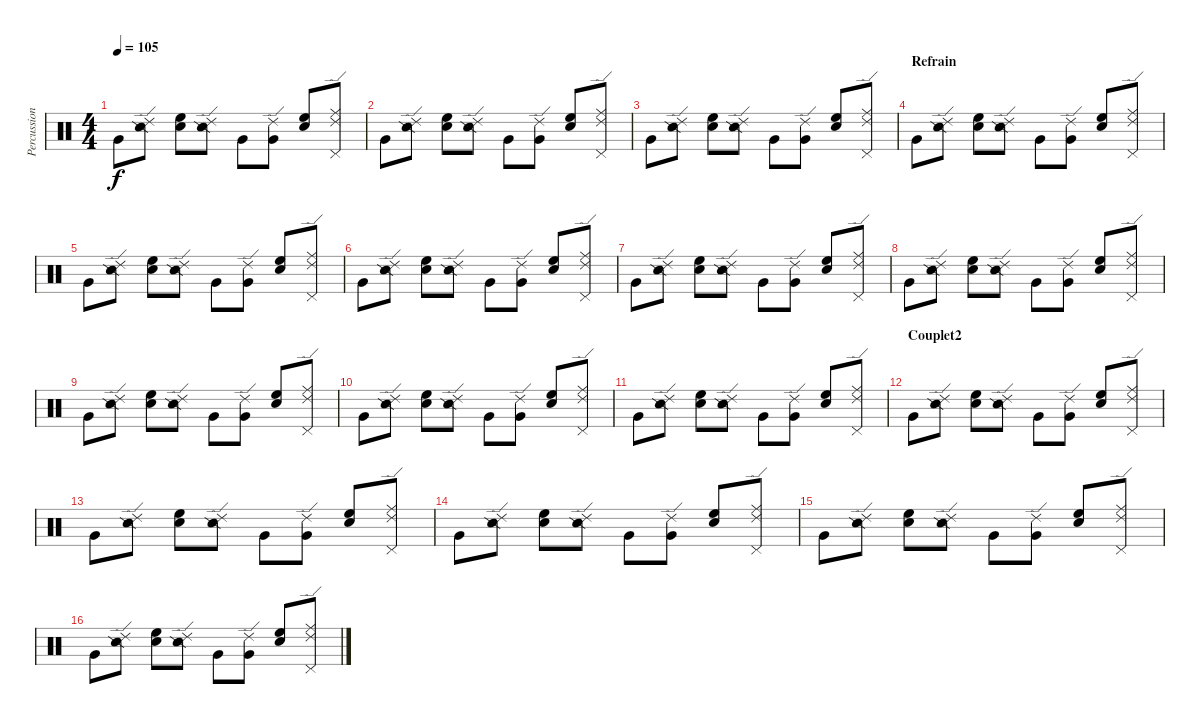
\track ("Percussions" "Percussion") {instrument percussion}
\staff {score}
\articulation defaults
\ts (4 4)
\tempo 105
\clef neutral
\ks c "Very Low Tom (hit)".8{dy f}
("Ride (edge) 2" "Snare (side stick) 2").8 ("Hand Clap (hit)" "High Floor Tom (hit)").8 ("Ride (edge) 2" "Snare (side stick) 2").8 "Very Low Tom (hit)".8 ("Ride (edge) 2" "Very Low Tom (hit)").8 ("Hand Clap (hit)" "High Floor Tom (hit)").8 ("Ride (edge) 2" "Ride (middle)" "Pedal Hi-Hat (hit)").8 |
"Very Low Tom (hit)".8 ("Ride (edge) 2" "Snare (side stick) 2").8 ("Hand Clap (hit)" "High Floor Tom (hit)").8 ("Ride (edge) 2" "Snare (side stick) 2").8 "Very Low Tom (hit)".8 ("Ride (edge) 2" "Very Low Tom (hit)").8 ("Hand Clap (hit)" "High Floor Tom (hit)").8 ("Ride (edge) 2" "Ride (middle)" "Pedal Hi-Hat (hit)").8 |
"Very Low Tom (hit)".8 ("Ride (edge) 2" "Snare (side stick) 2").8 ("Hand Clap (hit)" "High Floor Tom (hit)").8 ("Ride (edge) 2" "Snare (side stick) 2").8 "Very Low Tom (hit)".8 ("Ride (edge) 2" "Very Low Tom (hit)").8 ("Hand Clap (hit)" "High Floor Tom (hit)").8 ("Ride (edge) 2" "Ride (middle)" "Pedal Hi-Hat (hit)").8 |
\section ("" "Refrain")
"Very Low Tom (hit)".8 ("Ride (edge) 2" "Snare (side stick) 2").8 ("Hand Clap (hit)" "High Floor Tom (hit)").8 ("Ride (edge) 2" "Snare (side stick) 2").8 "Very Low Tom (hit)".8 ("Ride (edge) 2" "Very Low Tom (hit)").8 ("Hand Clap (hit)" "High Floor Tom (hit)").8 ("Ride (edge) 2" "Ride (middle)" "Pedal Hi-Hat (hit)").8 |
"Very Low Tom (hit)".8 ("Ride (edge) 2" "Snare (side stick) 2").8 ("Hand Clap (hit)" "High Floor Tom (hit)").8 ("Ride (edge) 2" "Snare (side stick) 2").8 "Very Low Tom (hit)".8 ("Ride (edge) 2" "Very Low Tom (hit)").8 ("Hand Clap (hit)" "High Floor Tom (hit)").8 ("Ride (edge) 2" "Ride (middle)" "Pedal Hi-Hat (hit)").8 |
"Very Low Tom (hit)".8 ("Ride (edge) 2" "Snare (side stick) 2").8 ("Hand Clap (hit)" "High Floor Tom (hit)").8 ("Ride (edge) 2" "Snare (side stick) 2").8 "Very Low Tom (hit)".8 ("Ride (edge) 2" "Very Low Tom (hit)").8 ("Hand Clap (hit)" "High Floor Tom (hit)").8 ("Ride (edge) 2" "Ride (middle)" "Pedal Hi-Hat (hit)").8 |
"Very Low Tom (hit)".8 ("Ride (edge) 2" "Snare (side stick) 2").8 ("Hand Clap (hit)" "High Floor Tom (hit)").8 ("Ride (edge) 2" "Snare (side stick) 2").8 "Very Low Tom (hit)".8 ("Ride (edge) 2" "Very Low Tom (hit)").8 ("Hand Clap (hit)" "High Floor Tom (hit)").8 ("Ride (edge) 2" "Ride (middle)" "Pedal Hi-Hat (hit)").8 |
"Very Low Tom (hit)".8 ("Ride (edge) 2" "Snare (side stick) 2").8 ("Hand Clap (hit)" "High Floor Tom (hit)").8 ("Ride (edge) 2" "Snare (side stick) 2").8 "Very Low Tom (hit)".8 ("Ride (edge) 2" "Very Low Tom (hit)").8 ("Hand Clap (hit)" "High Floor Tom (hit)").8 ("Ride (edge) 2" "Ride (middle)" "Pedal Hi-Hat (hit)").8 |
"Very Low Tom (hit)".8 ("Ride (edge) 2" "Snare (side stick) 2").8 ("Hand Clap (hit)" "High Floor Tom (hit)").8 ("Ride (edge) 2" "Snare (side stick) 2").8 "Very Low Tom (hit)".8 ("Ride (edge) 2" "Very Low Tom (hit)").8 ("Hand Clap (hit)" "High Floor Tom (hit)").8 ("Ride (edge) 2" "Ride (middle)" "Pedal Hi-Hat (hit)").8 |
"Very Low Tom (hit)".8 ("Ride (edge) 2" "Snare (side stick) 2").8 ("Hand Clap (hit)" "High Floor Tom (hit)").8 ("Ride (edge) 2" "Snare (side stick) 2").8 "Very Low Tom (hit)".8 ("Ride (edge) 2" "Very Low Tom (hit)").8 ("Hand Clap (hit)" "High Floor Tom (hit)").8 ("Ride (edge) 2" "Ride (middle)" "Pedal Hi-Hat (hit)").8 |
"Very Low Tom (hit)".8 ("Ride (edge) 2" "Snare (side stick) 2").8 ("Hand Clap (hit)" "High Floor Tom (hit)").8 ("Ride (edge) 2" "Snare (side stick) 2").8 "Very Low Tom (hit)".8 ("Ride (edge) 2" "Very Low Tom (hit)").8 ("Hand Clap (hit)" "High Floor Tom (hit)").8 ("Ride (edge) 2" "Ride (middle)" "Pedal Hi-Hat (hit)").8 |
\section ("" "Couplet2")
"Very Low Tom (hit)".8 ("Ride (edge) 2" "Snare (side stick) 2").8 ("Hand Clap (hit)" "High Floor Tom (hit)").8 ("Ride (edge) 2" "Snare (side stick) 2").8 "Very Low Tom (hit)".8 ("Ride (edge) 2" "Very Low Tom (hit)").8 ("Hand Clap (hit)" "High Floor Tom (hit)").8 ("Ride (edge) 2" "Ride (middle)" "Pedal Hi-Hat (hit)").8 |
"Very Low Tom (hit)".8 ("Ride (edge) 2" "Snare (side stick) 2").8 ("Hand Clap (hit)" "High Floor Tom (hit)").8 ("Ride (edge) 2" "Snare (side stick) 2").8 "Very Low Tom (hit)".8 ("Ride (edge) 2" "Very Low Tom (hit)").8 ("Hand Clap (hit)" "High Floor Tom (hit)").8 ("Ride (edge) 2" "Ride (middle)" "Pedal Hi-Hat (hit)").8 |
"Very Low Tom (hit)".8 ("Ride (edge) 2" "Snare (side stick) 2").8 ("Hand Clap (hit)" "High Floor Tom (hit)").8 ("Ride (edge) 2" "Snare (side stick) 2").8 "Very Low Tom (hit)".8 ("Ride (edge) 2" "Very Low Tom (hit)").8 ("Hand Clap (hit)" "High Floor Tom (hit)").8 ("Ride (edge) 2" "Ride (middle)" "Pedal Hi-Hat (hit)").8 |
"Very Low Tom (hit)".8 ("Ride (edge) 2" "Snare (side stick) 2").8 ("Hand Clap (hit)" "High Floor Tom (hit)").8 ("Ride (edge) 2" "Snare (side stick) 2").8 "Very Low Tom (hit)".8 ("Ride (edge) 2" "Very Low Tom (hit)").8 ("Hand Clap (hit)" "High Floor Tom (hit)").8 ("Ride (edge) 2" "Ride (middle)" "Pedal Hi-Hat (hit)").8 |
"Very Low Tom (hit)".8 ("Ride (edge) 2" "Snare (side stick) 2").8 ("Hand Clap (hit)" "High Floor Tom (hit)").8 ("Ride (edge) 2" "Snare (side stick) 2").8 "Very Low Tom (hit)".8 ("Ride (edge) 2" "Very Low Tom (hit)").8 ("Hand Clap (hit)" "High Floor Tom (hit)").8 ("Ride (edge) 2" "Ride (middle)" "Pedal Hi-Hat (hit)").8
